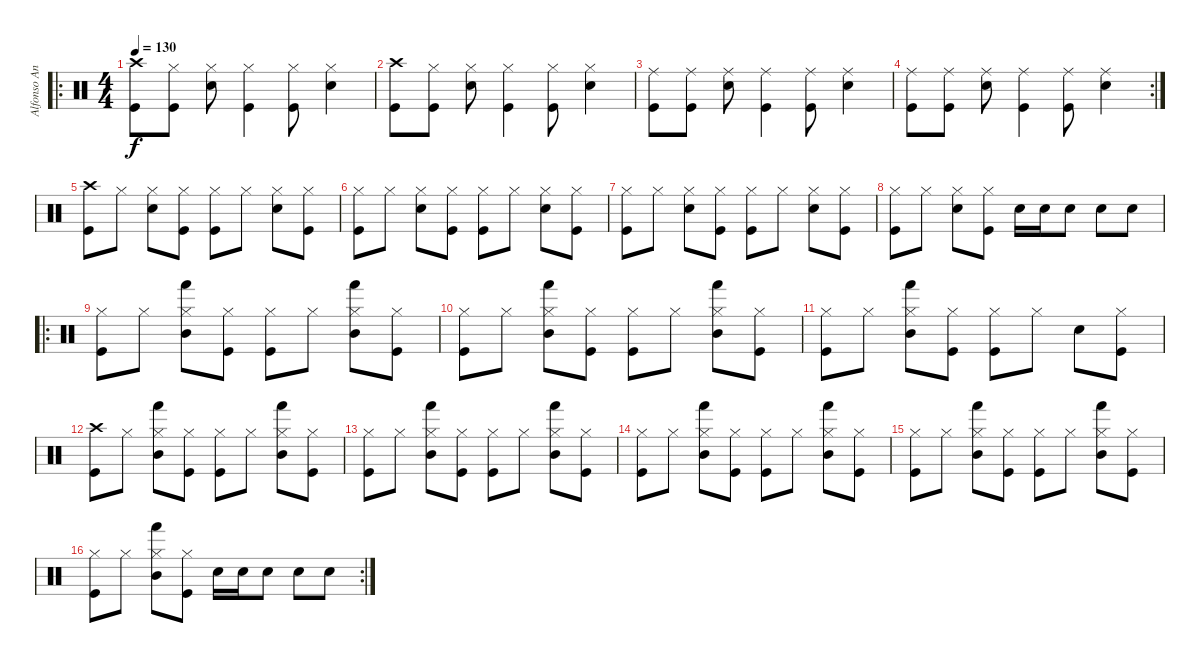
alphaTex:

\track ("Alfonso Andre" "Alfonso An") {instrument percussion}
\staff {score}
\articulation defaults
\ro
\ts (4 4)
\tempo 130
\clef neutral
\ks c
("Kick (hit)" "Crash high (hit)").8{dy f} ("Kick (hit)" "Hi-Hat (closed)").8 ("Snare (hit) 2" "Hi-Hat (closed)").8 ("Kick (hit)" "Hi-Hat (closed)").4 ("Kick (hit)" "Hi-Hat (closed)").8 ("Snare (hit) 2" "Hi-Hat (closed)").4 |
("Kick (hit)" "Crash high (hit)").8 ("Kick (hit)" "Hi-Hat (closed)").8 ("Snare (hit) 2" "Hi-Hat (closed)").8 ("Kick (hit)" "Hi-Hat (closed)").4 ("Kick (hit)" "Hi-Hat (closed)").8 ("Snare (hit) 2" "Hi-Hat (closed)").4 |
("Kick (hit)" "Ride (middle)").8 ("Kick (hit)" "Ride (middle)").8 ("Snare (hit) 2" "Ride (middle)").8 ("Kick (hit)" "Ride (middle)").4 ("Kick (hit)" "Ride (middle)").8 ("Snare (hit) 2" "Ride (middle)").4 |
\rc 2
("Kick (hit)" "Ride (middle)").8 ("Kick (hit)" "Ride (middle)").8 ("Snare (hit) 2" "Ride (middle)").8 ("Kick (hit)" "Ride (middle)").4 ("Kick (hit)" "Ride (middle)").8 ("Snare (hit) 2" "Ride (middle)").4 |
("Kick (hit)" "Crash high (hit)").8 "Hi-Hat (closed)".8 ("Snare (hit) 2" "Hi-Hat (closed)").8 ("Kick (hit)" "Hi-Hat (closed)").8 ("Kick (hit)" "Hi-Hat (closed)").8 "Hi-Hat (closed)".8 ("Snare (hit) 2" "Hi-Hat (closed)").8 ("Kick (hit)" "Hi-Hat (closed)").8 |
("Kick (hit)" "Hi-Hat (closed)").8 "Hi-Hat (closed)".8 ("Snare (hit) 2" "Hi-Hat (closed)").8 ("Kick (hit)" "Hi-Hat (closed)").8 ("Kick (hit)" "Hi-Hat (closed)").8 "Hi-Hat (closed)".8 ("Snare (hit) 2" "Hi-Hat (closed)").8 ("Kick (hit)" "Hi-Hat (closed)").8 |
("Kick (hit)" "Hi-Hat (closed)").8 "Hi-Hat (closed)".8 ("Snare (hit) 2" "Hi-Hat (closed)").8 ("Kick (hit)" "Hi-Hat (closed)").8 ("Kick (hit)" "Hi-Hat (closed)").8 "Hi-Hat (closed)".8 ("Snare (hit) 2" "Hi-Hat (closed)").8 ("Kick (hit)" "Hi-Hat (closed)").8 |
("Kick (hit)" "Hi-Hat (closed)").8 "Hi-Hat (closed)".8 ("Snare (hit) 2" "Hi-Hat (closed)").8 ("Kick (hit)" "Hi-Hat (closed)").8 "Snare (hit) 2".16 "Snare (hit) 2".16 "Snare (hit) 2".8 "Snare (hit) 2".8 "Snare (hit) 2".8 |
\ro
("Kick (hit)" "Hi-Hat (closed)").8 "Hi-Hat (closed)".8 ("Mid Tom (hit)" "Hand (hit)" "Hi-Hat (closed)").8 ("Kick (hit)" "Hi-Hat (closed)").8 ("Kick (hit)" "Hi-Hat (closed)").8 "Hi-Hat (closed)".8 ("Mid Tom (hit)" "Hand (hit)" "Hi-Hat (closed)").8 ("Kick (hit)" "Hi-Hat (closed)").8 |
("Kick (hit)" "Hi-Hat (closed)").8 "Hi-Hat (closed)".8 ("Mid Tom (hit)" "Hand (hit)" "Hi-Hat (closed)").8 ("Kick (hit)" "Hi-Hat (closed)").8 ("Kick (hit)" "Hi-Hat (closed)").8 "Hi-Hat (closed)".8 ("Mid Tom (hit)" "Hand (hit)" "Hi-Hat (closed)").8 ("Kick (hit)" "Hi-Hat (closed)").8 |
("Kick (hit)" "Hi-Hat (closed)").8 "Hi-Hat (closed)".8 ("Mid Tom (hit)" "Hand (hit)" "Hi-Hat (closed)").8 ("Kick (hit)" "Hi-Hat (closed)").8 ("Kick (hit)" "Hi-Hat (closed)").8 "Hi-Hat (closed)".8 "Snare (hit) 2".8 ("Kick (hit)" "Hi-Hat (closed)").8 |
("Kick (hit)" "Crash high (hit)").8 "Hi-Hat (closed)".8 ("Mid Tom (hit)" "Hand (hit)" "Hi-Hat (closed)").8 ("Kick (hit)" "Hi-Hat (closed)").8 ("Kick (hit)" "Hi-Hat (closed)").8 "Hi-Hat (closed)".8 ("Mid Tom (hit)" "Hand (hit)" "Hi-Hat (closed)").8 ("Kick (hit)" "Hi-Hat (closed)").8 |
("Kick (hit)" "Hi-Hat (closed)").8 "Hi-Hat (closed)".8 ("Mid Tom (hit)" "Hand (hit)" "Hi-Hat (closed)").8 ("Kick (hit)" "Hi-Hat (closed)").8 ("Kick (hit)" "Hi-Hat (closed)").8 "Hi-Hat (closed)".8 ("Mid Tom (hit)" "Hand (hit)" "Hi-Hat (closed)").8 ("Kick (hit)" "Hi-Hat (closed)").8 |
("Kick (hit)" "Hi-Hat (closed)").8 "Hi-Hat (closed)".8 ("Mid Tom (hit)" "Hand (hit)" "Hi-Hat (closed)").8 ("Kick (hit)" "Hi-Hat (closed)").8 ("Kick (hit)" "Hi-Hat (closed)").8 "Hi-Hat (closed)".8 ("Mid Tom (hit)" "Hand (hit)" "Hi-Hat (closed)").8 ("Kick (hit)" "Hi-Hat (closed)").8 |
("Kick (hit)" "Hi-Hat (closed)").8 "Hi-Hat (closed)".8 ("Mid Tom (hit)" "Hand (hit)" "Hi-Hat (closed)").8 ("Kick (hit)" "Hi-Hat (closed)").8 ("Kick (hit)" "Hi-Hat (closed)").8 "Hi-Hat (closed)".8 ("Mid Tom (hit)" "Hand (hit)" "Hi-Hat (closed)").8 ("Kick (hit)" "Hi-Hat (closed)").8 |
\rc 2
("Kick (hit)" "Hi-Hat (closed)").8 "Hi-Hat (closed)".8 ("Mid Tom (hit)" "Hand (hit)" "Hi-Hat (closed)").8 ("Kick (hit)" "Hi-Hat (closed)").8 "Snare (hit) 2".16 "Snare (hit) 2".16 "Snare (hit) 2".8 "Snare (hit) 2".8 "Snare (hit) 2".8
